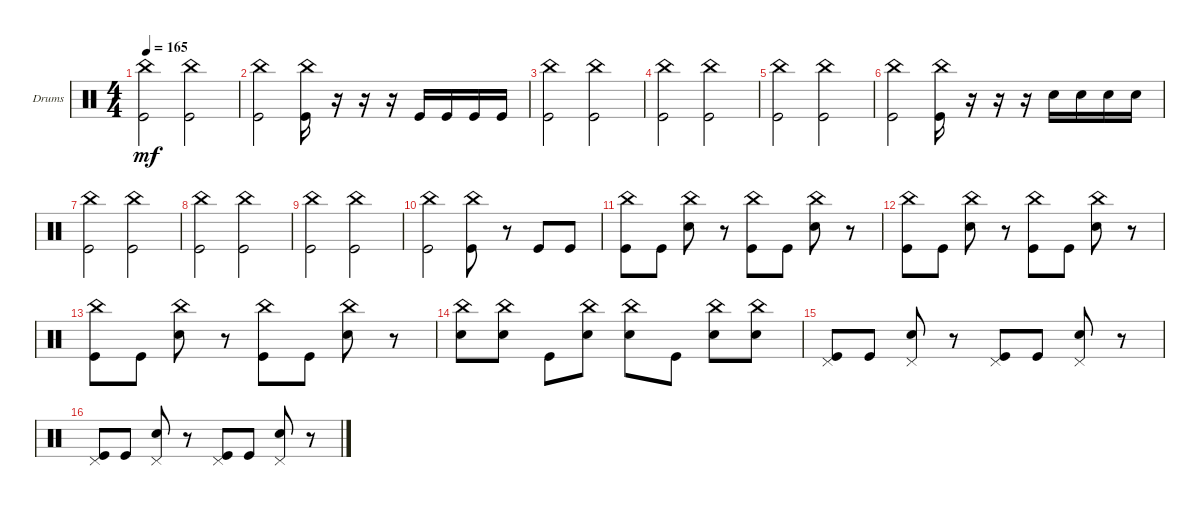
\defaultSystemsLayout 4
\bracketExtendMode groupsimilarinstruments
\firstSystemTrackNameOrientation horizontal
\otherSystemsTrackNameOrientation horizontal
\track ("Drumkit" "Drums") {instrument percussion}
\staff {score}
\articulation defaults
\ts (4 4)
\tempo 165
\clef neutral
\ks c
("Kick (hit)" "China (hit)").2{dy mf} ("Kick (hit)" "China (hit)").2 |
("Kick (hit)" "China (hit)").2 ("Kick (hit)" "China (hit)").16 r.16 r.16 r.16 "Kick (hit)".16 "Kick (hit)".16 "Kick (hit)".16 "Kick (hit)".16 |
("Kick (hit)" "China (hit)").2 ("Kick (hit)" "China (hit)").2 |
("Kick (hit)" "China (hit)").2 ("Kick (hit)" "China (hit)").2 |
("Kick (hit)" "China (hit)").2 ("Kick (hit)" "China (hit)").2 |
("Kick (hit)" "China (hit)").2 ("Kick (hit)" "China (hit)").16 r.16 r.16 r.16 "Snare (hit) 2".16 "Snare (hit) 2".16 "Snare (hit) 2".16 "Snare (hit) 2".16 |
("Kick (hit)" "China (hit)").2 ("Kick (hit)" "China (hit)").2 |
("Kick (hit)" "China (hit)").2 ("Kick (hit)" "China (hit)").2 |
("Kick (hit)" "China (hit)").2 ("Kick (hit)" "China (hit)").2 |
("Kick (hit)" "China (hit)").2 ("Kick (hit)" "China (hit)").8 r.8 "Kick (hit)".8 "Kick (hit)".8 |
("Kick (hit)" "China (hit)").8 "Kick (hit)".8 ("Snare (hit) 2" "China (hit)").8 r.8 ("Kick (hit)" "China (hit)").8 "Kick (hit)".8 ("Snare (hit) 2" "China (hit)").8 r.8 |
("Kick (hit)" "China (hit)").8 "Kick (hit)".8 ("Snare (hit) 2" "China (hit)").8 r.8 ("Kick (hit)" "China (hit)").8 "Kick (hit)".8 ("Snare (hit) 2" "China (hit)").8 r.8 |
("Kick (hit)" "China (hit)").8 "Kick (hit)".8 ("Snare (hit) 2" "China (hit)").8 r.8 ("Kick (hit)" "China (hit)").8 "Kick (hit)".8 ("Snare (hit) 2" "China (hit)").8 r.8 |
("Snare (hit) 2" "China (hit)").8 ("Snare (hit) 2" "China (hit)").8 "Kick (hit)".8 ("Snare (hit) 2" "China (hit)").8 ("Snare (hit) 2" "China (hit)").8 "Kick (hit)".8 ("Snare (hit) 2" "China (hit)").8 ("Snare (hit) 2" "China (hit)").8 |
("Pedal Hi-Hat (hit)" "Kick (hit)").8 "Kick (hit)".8 ("Pedal Hi-Hat (hit)" "Snare (hit) 2").8 r.8 ("Pedal Hi-Hat (hit)" "Kick (hit)").8 "Kick (hit)".8 ("Pedal Hi-Hat (hit)" "Snare (hit) 2").8 r.8 |
("Pedal Hi-Hat (hit)" "Kick (hit)").8 "Kick (hit)".8 ("Pedal Hi-Hat (hit)" "Snare (hit) 2").8 r.8 ("Pedal Hi-Hat (hit)" "Kick (hit)").8 "Kick (hit)".8 ("Pedal Hi-Hat (hit)" "Snare (hit) 2").8 r.8
